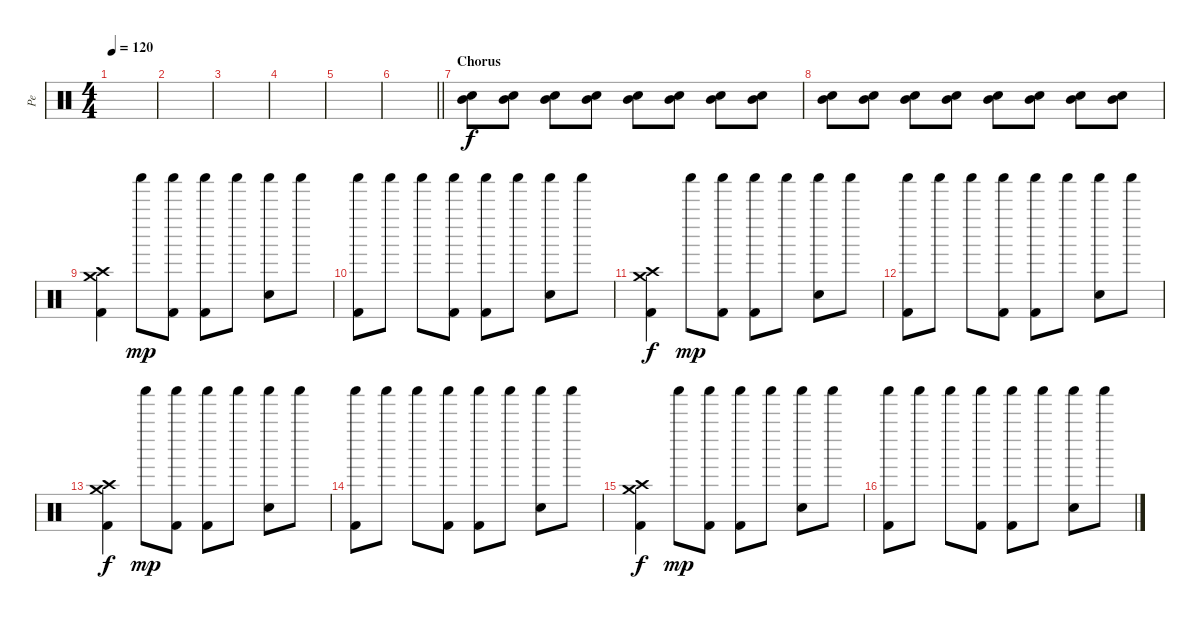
\track ("Pe" "Pe") {instrument percussion}
\staff {score}
\articulation defaults
\ts (4 4)
\tempo 120
\clef neutral
\ks c
|
|
|
|
|
\barLineRight lightlight
|
\section ("" "Chorus")
("Mid Tom (hit)" "Snare (hit) 2").8 ("Mid Tom (hit)" "Snare (hit) 2").8 ("Mid Tom (hit)" "Snare (hit) 2").8 ("Mid Tom (hit)" "Snare (hit) 2").8 ("Mid Tom (hit)" "Snare (hit) 2").8 ("Mid Tom (hit)" "Snare (hit) 2").8 ("Mid Tom (hit)" "Snare (hit) 2").8 ("Mid Tom (hit)" "Snare (hit) 2").8 |
("Mid Tom (hit)" "Snare (hit) 2").8 ("Mid Tom (hit)" "Snare (hit) 2").8 ("Mid Tom (hit)" "Snare (hit) 2").8 ("Mid Tom (hit)" "Snare (hit) 2").8 ("Mid Tom (hit)" "Snare (hit) 2").8 ("Mid Tom (hit)" "Snare (hit) 2").8 ("Mid Tom (hit)" "Snare (hit) 2").8 ("Mid Tom (hit)" "Snare (hit) 2").8 |
("Crash high (hit)" "Crash medium (hit)" "Kick (hit) 2").4 "Shaker (hit)".8{dy mp} ("Shaker (hit)" "Kick (hit) 2").8 ("Shaker (hit)" "Kick (hit) 2").8 "Shaker (hit)".8 ("Shaker (hit)" "Electric Snare (hit)").8 "Shaker (hit)".8 |
("Shaker (hit)" "Kick (hit) 2").8 "Shaker (hit)".8 "Shaker (hit)".8 ("Shaker (hit)" "Kick (hit) 2").8 ("Shaker (hit)" "Kick (hit) 2").8 "Shaker (hit)".8 ("Shaker (hit)" "Electric Snare (hit)").8 "Shaker (hit)".8 |
("Crash high (hit)" "Crash medium (hit)" "Kick (hit) 2").4{dy f} "Shaker (hit)".8{dy mp} ("Shaker (hit)" "Kick (hit) 2").8 ("Shaker (hit)" "Kick (hit) 2").8 "Shaker (hit)".8 ("Shaker (hit)" "Electric Snare (hit)").8 "Shaker (hit)".8 |
("Shaker (hit)" "Kick (hit) 2").8 "Shaker (hit)".8 "Shaker (hit)".8 ("Shaker (hit)" "Kick (hit) 2").8 ("Shaker (hit)" "Kick (hit) 2").8 "Shaker (hit)".8 ("Shaker (hit)" "Electric Snare (hit)").8 "Shaker (hit)".8 |
("Crash high (hit)" "Crash medium (hit)" "Kick (hit) 2").4{dy f} "Shaker (hit)".8{dy mp} ("Shaker (hit)" "Kick (hit) 2").8 ("Shaker (hit)" "Kick (hit) 2").8 "Shaker (hit)".8 ("Shaker (hit)" "Electric Snare (hit)").8 "Shaker (hit)".8 |
("Shaker (hit)" "Kick (hit) 2").8 "Shaker (hit)".8 "Shaker (hit)".8 ("Shaker (hit)" "Kick (hit) 2").8 ("Shaker (hit)" "Kick (hit) 2").8 "Shaker (hit)".8 ("Shaker (hit)" "Electric Snare (hit)").8 "Shaker (hit)".8 |
("Crash high (hit)" "Crash medium (hit)" "Kick (hit) 2").4{dy f} "Shaker (hit)".8{dy mp} ("Shaker (hit)" "Kick (hit) 2").8 ("Shaker (hit)" "Kick (hit) 2").8 "Shaker (hit)".8 ("Shaker (hit)" "Electric Snare (hit)").8 "Shaker (hit)".8 |
("Shaker (hit)" "Kick (hit) 2").8 "Shaker (hit)".8 "Shaker (hit)".8 ("Shaker (hit)" "Kick (hit) 2").8 ("Shaker (hit)" "Kick (hit) 2").8 "Shaker (hit)".8 ("Shaker (hit)" "Electric Snare (hit)").8 "Shaker (hit)".8
